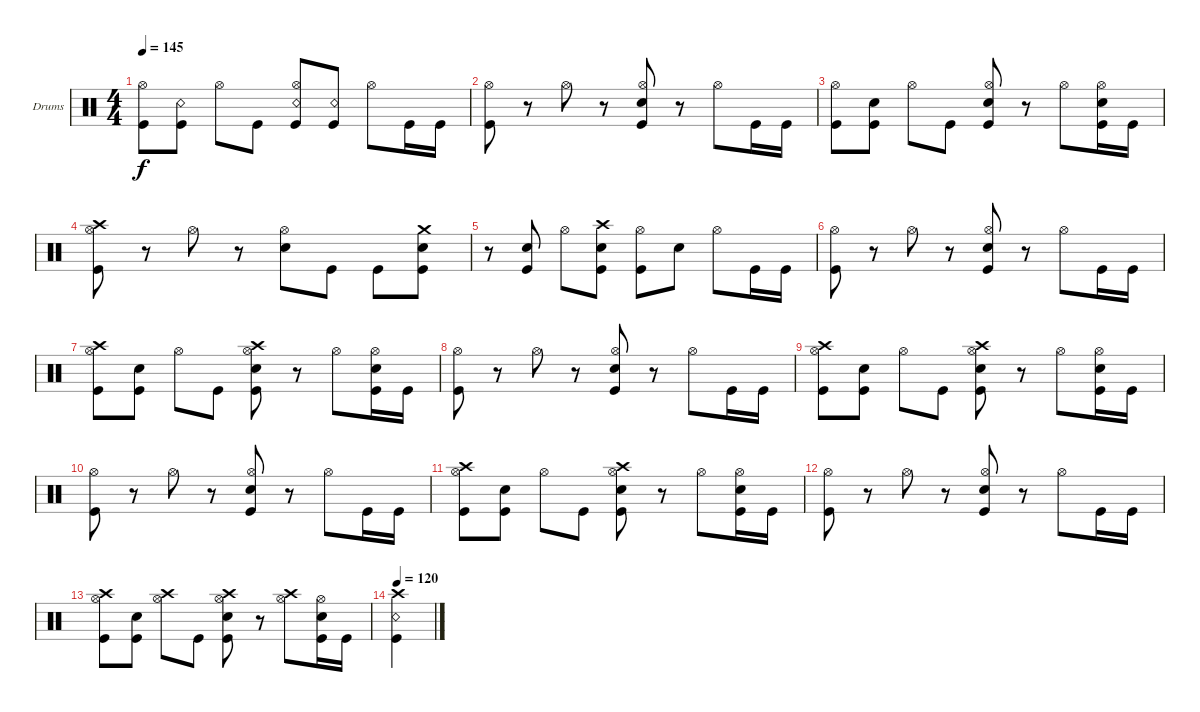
\bracketExtendMode groupsimilarinstruments
\firstSystemTrackNameOrientation horizontal
\otherSystemsTrackNameOrientation horizontal
\track ("Kaleb - Drums" "Drums") {instrument percussion}
\staff {score}
\articulation defaults
\ts (4 4)
\tempo 145
\clef neutral
\ks c
("Kick (hit)" "Hi-Hat (open)").8{dy f} ("Kick (hit)" "Snare (rim shot)").8 "Hi-Hat (open)".8 "Kick (hit)".8 ("Kick (hit)" "Hi-Hat (open)" "Snare (rim shot)").8 ("Kick (hit)" "Snare (rim shot)").8 "Hi-Hat (open)".8 "Kick (hit)".16 "Kick (hit)".16 |
("Kick (hit)" "Hi-Hat (open)").8 r.8 "Hi-Hat (open)".8 r.8 ("Kick (hit)" "Hi-Hat (open)" "Snare (hit) 2").8 r.8 "Hi-Hat (open)".8 "Kick (hit)".16 "Kick (hit)".16 |
("Kick (hit)" "Hi-Hat (open)").8 ("Kick (hit)" "Snare (hit) 2").8 "Hi-Hat (open)".8 "Kick (hit)".8 ("Kick (hit)" "Hi-Hat (open)" "Snare (hit) 2").8 r.8 "Hi-Hat (open)".8 ("Kick (hit)" "Hi-Hat (open)" "Snare (hit) 2").16 "Kick (hit)".16 |
("Kick (hit)" "Hi-Hat (open)" "Crash high (hit)").8 r.8 "Hi-Hat (open)".8 r.8 ("Snare (hit) 2" "Hi-Hat (open)").8 "Kick (hit)".8 "Kick (hit)".8 ("Snare (hit) 2" "Kick (hit)" "Crash medium (hit)").8 |
r.8 ("Kick (hit)" "Snare (hit) 2").8 "Hi-Hat (open)".8 ("Kick (hit)" "Snare (hit) 2" "Crash high (hit)").8 ("Kick (hit)" "Hi-Hat (open)").8 "Snare (hit) 2".8 "Hi-Hat (open)".8 "Kick (hit)".16 "Kick (hit)".16 |
("Kick (hit)" "Hi-Hat (open)").8 r.8 "Hi-Hat (open)".8 r.8 ("Kick (hit)" "Hi-Hat (open)" "Snare (hit) 2").8 r.8 "Hi-Hat (open)".8 "Kick (hit)".16 "Kick (hit)".16 |
("Kick (hit)" "Hi-Hat (open)" "Crash high (hit)").8 ("Kick (hit)" "Snare (hit) 2").8 "Hi-Hat (open)".8 "Kick (hit)".8 ("Kick (hit)" "Hi-Hat (open)" "Snare (hit) 2" "Crash high (hit)").8 r.8 "Hi-Hat (open)".8 ("Kick (hit)" "Snare (hit) 2" "Hi-Hat (open)").16 "Kick (hit)".16 |
("Kick (hit)" "Hi-Hat (open)").8 r.8 "Hi-Hat (open)".8 r.8 ("Kick (hit)" "Hi-Hat (open)" "Snare (hit) 2").8 r.8 "Hi-Hat (open)".8 "Kick (hit)".16 "Kick (hit)".16 |
("Kick (hit)" "Hi-Hat (open)" "Crash high (hit)").8 ("Kick (hit)" "Snare (hit) 2").8 "Hi-Hat (open)".8 "Kick (hit)".8 ("Kick (hit)" "Hi-Hat (open)" "Snare (hit) 2" "Crash high (hit)").8 r.8 "Hi-Hat (open)".8 ("Kick (hit)" "Snare (hit) 2" "Hi-Hat (open)").16 "Kick (hit)".16 |
("Kick (hit)" "Hi-Hat (open)").8 r.8 "Hi-Hat (open)".8 r.8 ("Kick (hit)" "Hi-Hat (open)" "Snare (hit) 2").8 r.8 "Hi-Hat (open)".8 "Kick (hit)".16 "Kick (hit)".16 |
("Kick (hit)" "Hi-Hat (open)" "Crash high (hit)").8 ("Kick (hit)" "Snare (hit) 2").8 "Hi-Hat (open)".8 "Kick (hit)".8 ("Kick (hit)" "Hi-Hat (open)" "Snare (hit) 2" "Crash high (hit)").8 r.8 "Hi-Hat (open)".8 ("Kick (hit)" "Snare (hit) 2" "Hi-Hat (open)").16 "Kick (hit)".16 |
("Kick (hit)" "Hi-Hat (open)").8 r.8 "Hi-Hat (open)".8 r.8 ("Kick (hit)" "Hi-Hat (open)" "Snare (hit) 2").8 r.8 "Hi-Hat (open)".8 "Kick (hit)".16 "Kick (hit)".16 |
("Kick (hit)" "Hi-Hat (open)" "Crash high (hit)").8 ("Kick (hit)" "Snare (hit) 2").8 ("Hi-Hat (open)" "Crash high (hit)").8 "Kick (hit)".8 ("Kick (hit)" "Hi-Hat (open)" "Snare (hit) 2" "Crash high (hit)").8 r.8 ("Hi-Hat (open)" "Crash high (hit)").8 ("Kick (hit)" "Snare (hit) 2" "Hi-Hat (open)").16 "Kick (hit)".16 |
\tempo 120
("Crash high (hit)" "Kick (hit)" "Snare (rim shot)").4
